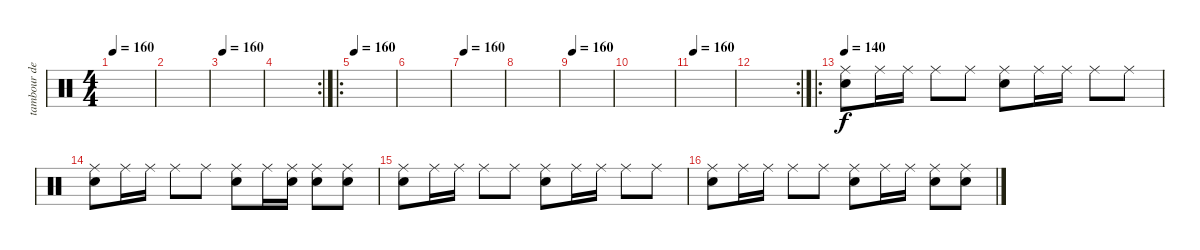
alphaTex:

\track ("tambour de guerre" "tambour de") {instrument percussion}
\staff {score}
\articulation defaults
\ts (4 4)
\tempo 160
\clef neutral
\ks c
|
|
\tempo 160
|
\rc 2
|
\ro
\tempo 160
|
|
\tempo 160
|
|
\tempo 160
|
|
\tempo 160
|
\rc 2
|
\ro
\tempo 140
("Snare (hit) 2" "Ride (middle)").8 "Ride (middle)".16 "Ride (middle)".16 "Ride (middle)".8 "Ride (middle)".8 ("Snare (hit) 2" "Ride (middle)").8 "Ride (middle)".16 "Ride (middle)".16 "Ride (middle)".8 "Ride (middle)".8 |
("Snare (hit) 2" "Ride (middle)").8 "Ride (middle)".16 "Ride (middle)".16 "Ride (middle)".8 "Ride (middle)".8 ("Snare (hit) 2" "Ride (middle)").8 "Ride (middle)".16 ("Snare (hit) 2" "Ride (middle)").16 ("Snare (hit) 2" "Ride (middle)").8 ("Snare (hit) 2" "Ride (middle)").8 |
("Snare (hit) 2" "Ride (middle)").8 "Ride (middle)".16 "Ride (middle)".16 "Ride (middle)".8 "Ride (middle)".8 ("Snare (hit) 2" "Ride (middle)").8 "Ride (middle)".16 "Ride (middle)".16 "Ride (middle)".8 "Ride (middle)".8 |
("Snare (hit) 2" "Ride (middle)").8 "Ride (middle)".16 "Ride (middle)".16 "Ride (middle)".8 "Ride (middle)".8 ("Snare (hit) 2" "Ride (middle)").8 "Ride (middle)".16 "Ride (middle)".16 ("Snare (hit) 2" "Ride (middle)").8 ("Snare (hit) 2" "Ride (middle)").8
